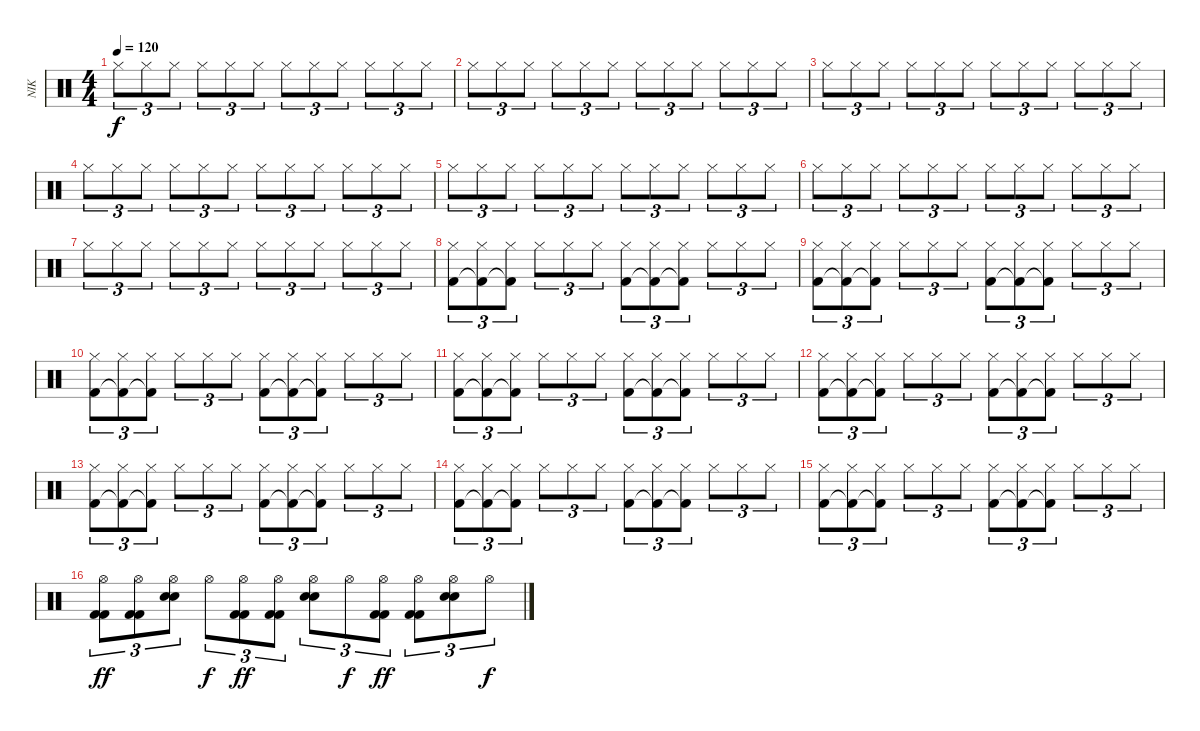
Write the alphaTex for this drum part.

\track ("NIK" "NIK") {instrument percussion}
\staff {score}
\articulation defaults
\ts (4 4)
\tempo 120
\clef neutral
\ks c "Hi-Hat (closed)".8{tu (3 2) dy f} "Hi-Hat (closed)".8{tu (3 2)} "Hi-Hat (closed)".8{tu (3 2)} "Hi-Hat (closed)".8{tu (3 2)} "Hi-Hat (closed)".8{tu (3 2)} "Hi-Hat (closed)".8{tu (3 2)} "Hi-Hat (closed)".8{tu (3 2)} "Hi-Hat (closed)".8{tu (3 2)} "Hi-Hat (closed)".8{tu (3 2)} "Hi-Hat (closed)".8{tu (3 2)} "Hi-Hat (closed)".8{tu (3 2)} "Hi-Hat (closed)".8{tu (3 2)}
|
"Hi-Hat (closed)".8{tu (3 2)} "Hi-Hat (closed)".8{tu (3 2)} "Hi-Hat (closed)".8{tu (3 2)} "Hi-Hat (closed)".8{tu (3 2)} "Hi-Hat (closed)".8{tu (3 2)} "Hi-Hat (closed)".8{tu (3 2)} "Hi-Hat (closed)".8{tu (3 2)} "Hi-Hat (closed)".8{tu (3 2)} "Hi-Hat (closed)".8{tu (3 2)} "Hi-Hat (closed)".8{tu (3 2)} "Hi-Hat (closed)".8{tu (3 2)} "Hi-Hat (closed)".8{tu (3 2)} |
"Hi-Hat (closed)".8{tu (3 2)} "Hi-Hat (closed)".8{tu (3 2)} "Hi-Hat (closed)".8{tu (3 2)} "Hi-Hat (closed)".8{tu (3 2)} "Hi-Hat (closed)".8{tu (3 2)} "Hi-Hat (closed)".8{tu (3 2)} "Hi-Hat (closed)".8{tu (3 2)} "Hi-Hat (closed)".8{tu (3 2)} "Hi-Hat (closed)".8{tu (3 2)} "Hi-Hat (closed)".8{tu (3 2)} "Hi-Hat (closed)".8{tu (3 2)} "Hi-Hat (closed)".8{tu (3 2)} |
"Hi-Hat (closed)".8{tu (3 2)} "Hi-Hat (closed)".8{tu (3 2)} "Hi-Hat (closed)".8{tu (3 2)} "Hi-Hat (closed)".8{tu (3 2)} "Hi-Hat (closed)".8{tu (3 2)} "Hi-Hat (closed)".8{tu (3 2)} "Hi-Hat (closed)".8{tu (3 2)} "Hi-Hat (closed)".8{tu (3 2)} "Hi-Hat (closed)".8{tu (3 2)} "Hi-Hat (closed)".8{tu (3 2)} "Hi-Hat (closed)".8{tu (3 2)} "Hi-Hat (closed)".8{tu (3 2)} |
"Hi-Hat (closed)".8{tu (3 2)} "Hi-Hat (closed)".8{tu (3 2)} "Hi-Hat (closed)".8{tu (3 2)} "Hi-Hat (closed)".8{tu (3 2)} "Hi-Hat (closed)".8{tu (3 2)} "Hi-Hat (closed)".8{tu (3 2)} "Hi-Hat (closed)".8{tu (3 2)} "Hi-Hat (closed)".8{tu (3 2)} "Hi-Hat (closed)".8{tu (3 2)} "Hi-Hat (closed)".8{tu (3 2)} "Hi-Hat (closed)".8{tu (3 2)} "Hi-Hat (closed)".8{tu (3 2)} |
"Hi-Hat (closed)".8{tu (3 2)} "Hi-Hat (closed)".8{tu (3 2)} "Hi-Hat (closed)".8{tu (3 2)} "Hi-Hat (closed)".8{tu (3 2)} "Hi-Hat (closed)".8{tu (3 2)} "Hi-Hat (closed)".8{tu (3 2)} "Hi-Hat (closed)".8{tu (3 2)} "Hi-Hat (closed)".8{tu (3 2)} "Hi-Hat (closed)".8{tu (3 2)} "Hi-Hat (closed)".8{tu (3 2)} "Hi-Hat (closed)".8{tu (3 2)} "Hi-Hat (closed)".8{tu (3 2)} |
"Hi-Hat (closed)".8{tu (3 2)} "Hi-Hat (closed)".8{tu (3 2)} "Hi-Hat (closed)".8{tu (3 2)} "Hi-Hat (closed)".8{tu (3 2)} "Hi-Hat (closed)".8{tu (3 2)} "Hi-Hat (closed)".8{tu (3 2)} "Hi-Hat (closed)".8{tu (3 2)} "Hi-Hat (closed)".8{tu (3 2)} "Hi-Hat (closed)".8{tu (3 2)} "Hi-Hat (closed)".8{tu (3 2)} "Hi-Hat (closed)".8{tu (3 2)} "Hi-Hat (closed)".8{tu (3 2)} |
("Hi-Hat (closed)" "Kick (hit) 2").8{tu (3 2)} ("Hi-Hat (closed)" "Kick (hit) 2"{t}).8{tu (3 2)} ("Hi-Hat (closed)" "Kick (hit) 2"{t}).8{tu (3 2)} "Hi-Hat (closed)".8{tu (3 2)} "Hi-Hat (closed)".8{tu (3 2)} "Hi-Hat (closed)".8{tu (3 2)} ("Hi-Hat (closed)" "Kick (hit) 2").8{tu (3 2)} ("Hi-Hat (closed)" "Kick (hit) 2"{t}).8{tu (3 2)} ("Hi-Hat (closed)" "Kick (hit) 2"{t}).8{tu (3 2)} "Hi-Hat (closed)".8{tu (3 2)} "Hi-Hat (closed)".8{tu (3 2)} "Hi-Hat (closed)".8{tu (3 2)} |
("Hi-Hat (closed)" "Kick (hit) 2").8{tu (3 2)} ("Hi-Hat (closed)" "Kick (hit) 2"{t}).8{tu (3 2)} ("Hi-Hat (closed)" "Kick (hit) 2"{t}).8{tu (3 2)} "Hi-Hat (closed)".8{tu (3 2)} "Hi-Hat (closed)".8{tu (3 2)} "Hi-Hat (closed)".8{tu (3 2)} ("Hi-Hat (closed)" "Kick (hit) 2").8{tu (3 2)} ("Hi-Hat (closed)" "Kick (hit) 2"{t}).8{tu (3 2)} ("Hi-Hat (closed)" "Kick (hit) 2"{t}).8{tu (3 2)} "Hi-Hat (closed)".8{tu (3 2)} "Hi-Hat (closed)".8{tu (3 2)} "Hi-Hat (closed)".8{tu (3 2)} |
("Hi-Hat (closed)" "Kick (hit) 2").8{tu (3 2)} ("Hi-Hat (closed)" "Kick (hit) 2"{t}).8{tu (3 2)} ("Hi-Hat (closed)" "Kick (hit) 2"{t}).8{tu (3 2)} "Hi-Hat (closed)".8{tu (3 2)} "Hi-Hat (closed)".8{tu (3 2)} "Hi-Hat (closed)".8{tu (3 2)} ("Hi-Hat (closed)" "Kick (hit) 2").8{tu (3 2)} ("Hi-Hat (closed)" "Kick (hit) 2"{t}).8{tu (3 2)} ("Hi-Hat (closed)" "Kick (hit) 2"{t}).8{tu (3 2)} "Hi-Hat (closed)".8{tu (3 2)} "Hi-Hat (closed)".8{tu (3 2)} "Hi-Hat (closed)".8{tu (3 2)} |
("Hi-Hat (closed)" "Kick (hit) 2").8{tu (3 2)} ("Hi-Hat (closed)" "Kick (hit) 2"{t}).8{tu (3 2)} ("Hi-Hat (closed)" "Kick (hit) 2"{t}).8{tu (3 2)} "Hi-Hat (closed)".8{tu (3 2)} "Hi-Hat (closed)".8{tu (3 2)} "Hi-Hat (closed)".8{tu (3 2)} ("Hi-Hat (closed)" "Kick (hit) 2").8{tu (3 2)} ("Hi-Hat (closed)" "Kick (hit) 2"{t}).8{tu (3 2)} ("Hi-Hat (closed)" "Kick (hit) 2"{t}).8{tu (3 2)} "Hi-Hat (closed)".8{tu (3 2)} "Hi-Hat (closed)".8{tu (3 2)} "Hi-Hat (closed)".8{tu (3 2)} |
("Hi-Hat (closed)" "Kick (hit) 2").8{tu (3 2)} ("Hi-Hat (closed)" "Kick (hit) 2"{t}).8{tu (3 2)} ("Hi-Hat (closed)" "Kick (hit) 2"{t}).8{tu (3 2)} "Hi-Hat (closed)".8{tu (3 2)} "Hi-Hat (closed)".8{tu (3 2)} "Hi-Hat (closed)".8{tu (3 2)} ("Hi-Hat (closed)" "Kick (hit) 2").8{tu (3 2)} ("Hi-Hat (closed)" "Kick (hit) 2"{t}).8{tu (3 2)} ("Hi-Hat (closed)" "Kick (hit) 2"{t}).8{tu (3 2)} "Hi-Hat (closed)".8{tu (3 2)} "Hi-Hat (closed)".8{tu (3 2)} "Hi-Hat (closed)".8{tu (3 2)} |
("Hi-Hat (closed)" "Kick (hit) 2").8{tu (3 2)} ("Hi-Hat (closed)" "Kick (hit) 2"{t}).8{tu (3 2)} ("Hi-Hat (closed)" "Kick (hit) 2"{t}).8{tu (3 2)} "Hi-Hat (closed)".8{tu (3 2)} "Hi-Hat (closed)".8{tu (3 2)} "Hi-Hat (closed)".8{tu (3 2)} ("Hi-Hat (closed)" "Kick (hit) 2").8{tu (3 2)} ("Hi-Hat (closed)" "Kick (hit) 2"{t}).8{tu (3 2)} ("Hi-Hat (closed)" "Kick (hit) 2"{t}).8{tu (3 2)} "Hi-Hat (closed)".8{tu (3 2)} "Hi-Hat (closed)".8{tu (3 2)} "Hi-Hat (closed)".8{tu (3 2)} |
("Hi-Hat (closed)" "Kick (hit) 2").8{tu (3 2)} ("Hi-Hat (closed)" "Kick (hit) 2"{t}).8{tu (3 2)} ("Hi-Hat (closed)" "Kick (hit) 2"{t}).8{tu (3 2)} "Hi-Hat (closed)".8{tu (3 2)} "Hi-Hat (closed)".8{tu (3 2)} "Hi-Hat (closed)".8{tu (3 2)} ("Hi-Hat (closed)" "Kick (hit) 2").8{tu (3 2)} ("Hi-Hat (closed)" "Kick (hit) 2"{t}).8{tu (3 2)} ("Hi-Hat (closed)" "Kick (hit) 2"{t}).8{tu (3 2)} "Hi-Hat (closed)".8{tu (3 2)} "Hi-Hat (closed)".8{tu (3 2)} "Hi-Hat (closed)".8{tu (3 2)} |
("Hi-Hat (closed)" "Kick (hit) 2").8{tu (3 2)} ("Hi-Hat (closed)" "Kick (hit) 2"{t}).8{tu (3 2)} ("Hi-Hat (closed)" "Kick (hit) 2"{t}).8{tu (3 2)} "Hi-Hat (closed)".8{tu (3 2)} "Hi-Hat (closed)".8{tu (3 2)} "Hi-Hat (closed)".8{tu (3 2)} ("Hi-Hat (closed)" "Kick (hit) 2").8{tu (3 2)} ("Hi-Hat (closed)" "Kick (hit) 2"{t}).8{tu (3 2)} ("Hi-Hat (closed)" "Kick (hit) 2"{t}).8{tu (3 2)} "Hi-Hat (closed)".8{tu (3 2)} "Hi-Hat (closed)".8{tu (3 2)} "Hi-Hat (closed)".8{tu (3 2)} |
("Kick (hit) 2" "Kick (hit) 2" "Hi-Hat (open)").8{tu (3 2) dy ff} ("Kick (hit) 2" "Kick (hit) 2" "Hi-Hat (open)").8{tu (3 2)} ("Electric Snare (hit)" "Electric Snare (hit)" "Hi-Hat (open)").8{tu (3 2)} "Hi-Hat (open)".8{tu (3 2) dy f} ("Kick (hit) 2" "Kick (hit) 2" "Hi-Hat (open)").8{tu (3 2) dy ff} ("Kick (hit) 2" "Kick (hit) 2" "Hi-Hat (open)").8{tu (3 2)} ("Electric Snare (hit)" "Electric Snare (hit)" "Hi-Hat (open)").8{tu (3 2)} "Hi-Hat (open)".8{tu (3 2) dy f} ("Kick (hit) 2" "Kick (hit) 2" "Hi-Hat (open)").8{tu (3 2) dy ff} ("Kick (hit) 2" "Kick (hit) 2" "Hi-Hat (open)").8{tu (3 2)} ("Electric Snare (hit)" "Electric Snare (hit)" "Hi-Hat (open)").8{tu (3 2)} "Hi-Hat (open)".8{tu (3 2) dy f}
